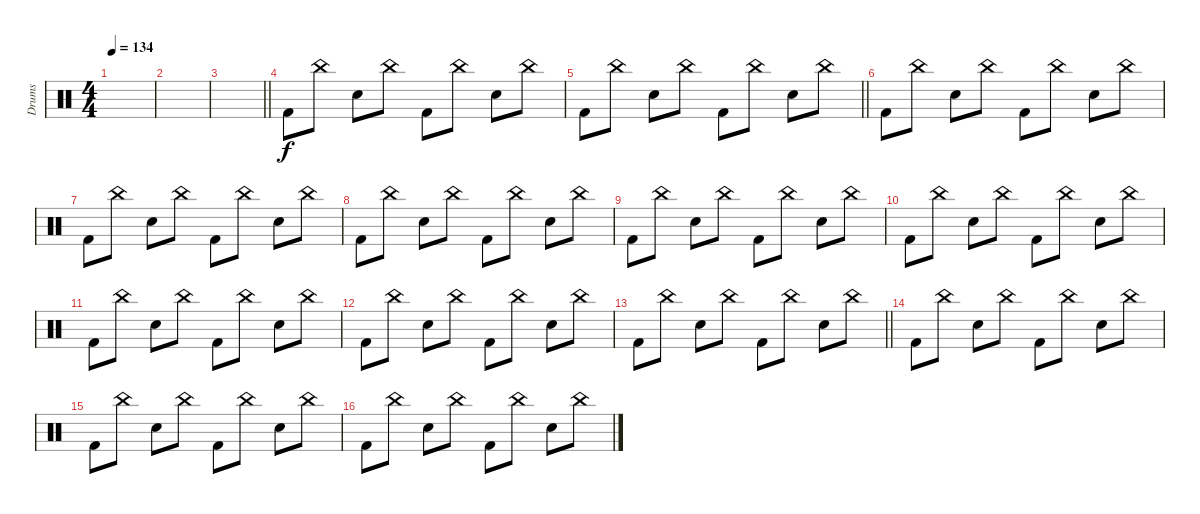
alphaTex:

\track ("Drums" "Drums") {instrument percussion}
\staff {score}
\articulation defaults
\ts (4 4)
\tempo 134
\clef neutral
\ks c
|
|
\barLineRight lightlight
|
"Kick (hit) 2".8 "China (hit)".8 "Electric Snare (hit)".8 "China (hit)".8 "Kick (hit) 2".8 "China (hit)".8 "Electric Snare (hit)".8 "China (hit)".8 |
\barLineRight lightlight "Kick (hit) 2".8 "China (hit)".8 "Electric Snare (hit)".8 "China (hit)".8 "Kick (hit) 2".8 "China (hit)".8 "Electric Snare (hit)".8 "China (hit)".8
|
"Kick (hit) 2".8 "China (hit)".8 "Electric Snare (hit)".8 "China (hit)".8 "Kick (hit) 2".8 "China (hit)".8 "Electric Snare (hit)".8 "China (hit)".8 |
"Kick (hit) 2".8 "China (hit)".8 "Electric Snare (hit)".8 "China (hit)".8 "Kick (hit) 2".8 "China (hit)".8 "Electric Snare (hit)".8 "China (hit)".8 |
"Kick (hit) 2".8 "China (hit)".8 "Electric Snare (hit)".8 "China (hit)".8 "Kick (hit) 2".8 "China (hit)".8 "Electric Snare (hit)".8 "China (hit)".8 |
"Kick (hit) 2".8 "China (hit)".8 "Electric Snare (hit)".8 "China (hit)".8 "Kick (hit) 2".8 "China (hit)".8 "Electric Snare (hit)".8 "China (hit)".8 |
"Kick (hit) 2".8 "China (hit)".8 "Electric Snare (hit)".8 "China (hit)".8 "Kick (hit) 2".8 "China (hit)".8 "Electric Snare (hit)".8 "China (hit)".8 |
"Kick (hit) 2".8 "China (hit)".8 "Electric Snare (hit)".8 "China (hit)".8 "Kick (hit) 2".8 "China (hit)".8 "Electric Snare (hit)".8 "China (hit)".8 |
"Kick (hit) 2".8 "China (hit)".8 "Electric Snare (hit)".8 "China (hit)".8 "Kick (hit) 2".8 "China (hit)".8 "Electric Snare (hit)".8 "China (hit)".8 |
\barLineRight lightlight "Kick (hit) 2".8 "China (hit)".8 "Electric Snare (hit)".8 "China (hit)".8 "Kick (hit) 2".8 "China (hit)".8 "Electric Snare (hit)".8 "China (hit)".8
|
"Kick (hit) 2".8 "China (hit)".8 "Electric Snare (hit)".8 "China (hit)".8 "Kick (hit) 2".8 "China (hit)".8 "Electric Snare (hit)".8 "China (hit)".8 |
"Kick (hit) 2".8 "China (hit)".8 "Electric Snare (hit)".8 "China (hit)".8 "Kick (hit) 2".8 "China (hit)".8 "Electric Snare (hit)".8 "China (hit)".8 |
"Kick (hit) 2".8 "China (hit)".8 "Electric Snare (hit)".8 "China (hit)".8 "Kick (hit) 2".8 "China (hit)".8 "Electric Snare (hit)".8 "China (hit)".8
